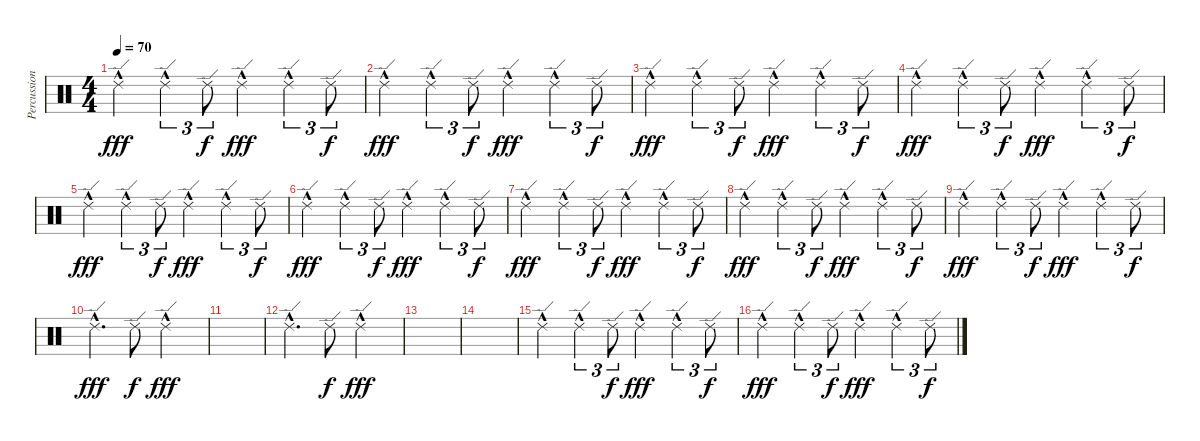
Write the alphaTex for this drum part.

\track ("Percussion" "Percussion") {instrument percussion}
\staff {score}
\articulation defaults
\ts (4 4)
\tempo 70
\clef neutral
\ks c "Ride (edge) 2"{hac}.4{dy fff} "Ride (edge) 2"{hac}.4{tu (3 2)} "Ride (edge) 2".8{tu (3 2) dy f} "Ride (edge) 2"{hac}.4{dy fff} "Ride (edge) 2"{hac}.4{tu (3 2)} "Ride (edge) 2".8{tu (3 2) dy f}
|
"Ride (edge) 2"{hac}.4{dy fff} "Ride (edge) 2"{hac}.4{tu (3 2)} "Ride (edge) 2".8{tu (3 2) dy f} "Ride (edge) 2"{hac}.4{dy fff} "Ride (edge) 2"{hac}.4{tu (3 2)} "Ride (edge) 2".8{tu (3 2) dy f} |
"Ride (edge) 2"{hac}.4{dy fff} "Ride (edge) 2"{hac}.4{tu (3 2)} "Ride (edge) 2".8{tu (3 2) dy f} "Ride (edge) 2"{hac}.4{dy fff} "Ride (edge) 2"{hac}.4{tu (3 2)} "Ride (edge) 2".8{tu (3 2) dy f} |
"Ride (edge) 2"{hac}.4{dy fff} "Ride (edge) 2"{hac}.4{tu (3 2)} "Ride (edge) 2".8{tu (3 2) dy f} "Ride (edge) 2"{hac}.4{dy fff} "Ride (edge) 2"{hac}.4{tu (3 2)} "Ride (edge) 2".8{tu (3 2) dy f} |
"Ride (edge) 2"{hac}.4{dy fff} "Ride (edge) 2"{hac}.4{tu (3 2)} "Ride (edge) 2".8{tu (3 2) dy f} "Ride (edge) 2"{hac}.4{dy fff} "Ride (edge) 2"{hac}.4{tu (3 2)} "Ride (edge) 2".8{tu (3 2) dy f} |
"Ride (edge) 2"{hac}.4{dy fff} "Ride (edge) 2"{hac}.4{tu (3 2)} "Ride (edge) 2".8{tu (3 2) dy f} "Ride (edge) 2"{hac}.4{dy fff} "Ride (edge) 2"{hac}.4{tu (3 2)} "Ride (edge) 2".8{tu (3 2) dy f} |
"Ride (edge) 2"{hac}.4{dy fff} "Ride (edge) 2"{hac}.4{tu (3 2)} "Ride (edge) 2".8{tu (3 2) dy f} "Ride (edge) 2"{hac}.4{dy fff} "Ride (edge) 2"{hac}.4{tu (3 2)} "Ride (edge) 2".8{tu (3 2) dy f} |
"Ride (edge) 2"{hac}.4{dy fff} "Ride (edge) 2"{hac}.4{tu (3 2)} "Ride (edge) 2".8{tu (3 2) dy f} "Ride (edge) 2"{hac}.4{dy fff} "Ride (edge) 2"{hac}.4{tu (3 2)} "Ride (edge) 2".8{tu (3 2) dy f} |
"Ride (edge) 2"{hac}.4{dy fff} "Ride (edge) 2"{hac}.4{tu (3 2)} "Ride (edge) 2".8{tu (3 2) dy f} "Ride (edge) 2"{hac}.4{dy fff} "Ride (edge) 2"{hac}.4{tu (3 2)} "Ride (edge) 2".8{tu (3 2) dy f} |
"Ride (edge) 2"{hac}.4{d dy fff} "Ride (edge) 2".8{dy f} "Ride (edge) 2"{hac}.2{dy fff} |
|
"Ride (edge) 2"{hac}.4{d} "Ride (edge) 2".8{dy f} "Ride (edge) 2"{hac}.2{dy fff} |
|
|
"Ride (edge) 2"{hac}.4 "Ride (edge) 2"{hac}.4{tu (3 2)} "Ride (edge) 2".8{tu (3 2) dy f} "Ride (edge) 2"{hac}.4{dy fff} "Ride (edge) 2"{hac}.4{tu (3 2)} "Ride (edge) 2".8{tu (3 2) dy f} |
"Ride (edge) 2"{hac}.4{dy fff} "Ride (edge) 2"{hac}.4{tu (3 2)} "Ride (edge) 2".8{tu (3 2) dy f} "Ride (edge) 2"{hac}.4{dy fff} "Ride (edge) 2"{hac}.4{tu (3 2)} "Ride (edge) 2".8{tu (3 2) dy f}
